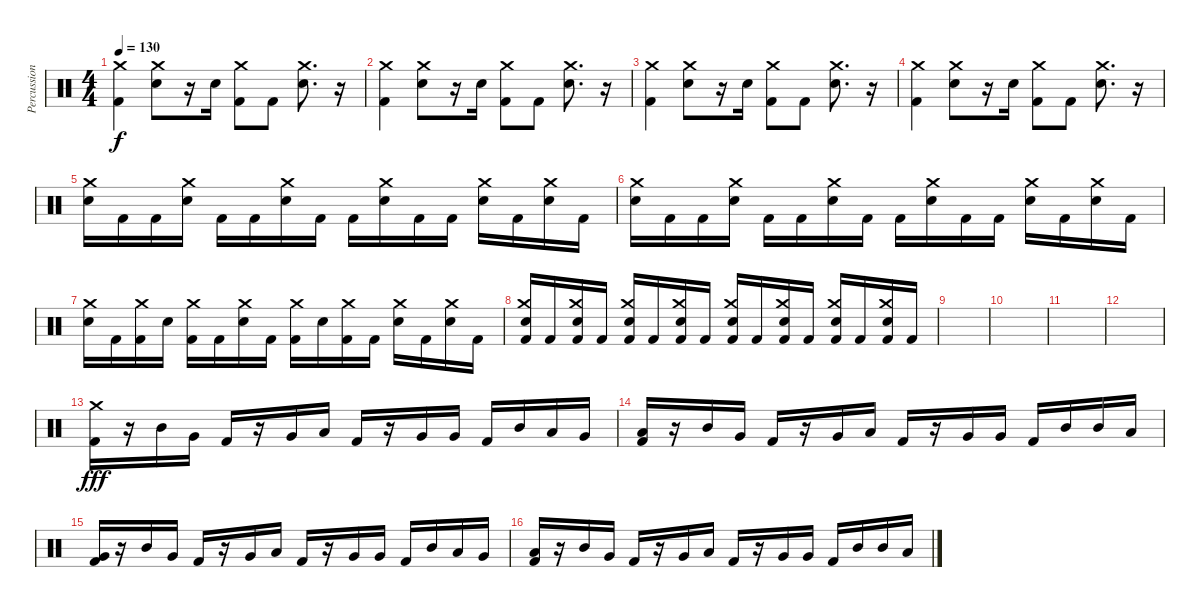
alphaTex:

\track ("Percussions" "Percussion") {instrument percussion}
\staff {score}
\articulation defaults
\ts (4 4)
\tempo 130
\clef neutral
\ks c
("Kick (hit) 2" "Crash medium (hit)").4{dy f} ("Electric Snare (hit)" "Crash medium (hit)").8 r.16 "Electric Snare (hit)".16 ("Kick (hit) 2" "Crash medium (hit)").8 "Kick (hit) 2".8 ("Electric Snare (hit)" "Crash medium (hit)").8{d} r.16 |
("Kick (hit) 2" "Crash medium (hit)").4 ("Electric Snare (hit)" "Crash medium (hit)").8 r.16 "Electric Snare (hit)".16 ("Kick (hit) 2" "Crash medium (hit)").8 "Kick (hit) 2".8 ("Electric Snare (hit)" "Crash medium (hit)").8{d} r.16 |
("Kick (hit) 2" "Crash medium (hit)").4 ("Electric Snare (hit)" "Crash medium (hit)").8 r.16 "Electric Snare (hit)".16 ("Kick (hit) 2" "Crash medium (hit)").8 "Kick (hit) 2".8 ("Electric Snare (hit)" "Crash medium (hit)").8{d} r.16 |
("Kick (hit) 2" "Crash medium (hit)").4 ("Electric Snare (hit)" "Crash medium (hit)").8 r.16 "Electric Snare (hit)".16 ("Kick (hit) 2" "Crash medium (hit)").8 "Kick (hit) 2".8 ("Electric Snare (hit)" "Crash medium (hit)").8{d} r.16 |
("Crash medium (hit)" "Electric Snare (hit)").16 "Kick (hit) 2".16 "Kick (hit) 2".16 ("Crash medium (hit)" "Electric Snare (hit)").16 "Kick (hit) 2".16 "Kick (hit) 2".16 ("Crash medium (hit)" "Electric Snare (hit)").16 "Kick (hit) 2".16 "Kick (hit) 2".16 ("Crash medium (hit)" "Electric Snare (hit)").16 "Kick (hit) 2".16 "Kick (hit) 2".16 ("Crash medium (hit)" "Electric Snare (hit)").16 "Kick (hit) 2".16 ("Crash medium (hit)" "Electric Snare (hit)").16 "Kick (hit) 2".16 |
("Crash medium (hit)" "Electric Snare (hit)").16 "Kick (hit) 2".16 "Kick (hit) 2".16 ("Crash medium (hit)" "Electric Snare (hit)").16 "Kick (hit) 2".16 "Kick (hit) 2".16 ("Crash medium (hit)" "Electric Snare (hit)").16 "Kick (hit) 2".16 "Kick (hit) 2".16 ("Crash medium (hit)" "Electric Snare (hit)").16 "Kick (hit) 2".16 "Kick (hit) 2".16 ("Crash medium (hit)" "Electric Snare (hit)").16 "Kick (hit) 2".16 ("Crash medium (hit)" "Electric Snare (hit)").16 "Kick (hit) 2".16 |
("Crash medium (hit)" "Electric Snare (hit)").16 "Kick (hit) 2".16 ("Crash medium (hit)" "Kick (hit) 2").16 "Electric Snare (hit)".16 ("Crash medium (hit)" "Kick (hit) 2").16 "Kick (hit) 2".16 ("Crash medium (hit)" "Electric Snare (hit)").16 "Kick (hit) 2".16 ("Crash medium (hit)" "Kick (hit) 2").16 "Electric Snare (hit)".16 ("Crash medium (hit)" "Kick (hit) 2").16 "Kick (hit) 2".16 ("Crash medium (hit)" "Electric Snare (hit)").16 "Kick (hit) 2".16 ("Crash medium (hit)" "Electric Snare (hit)").16 "Kick (hit) 2".16 |
("Crash medium (hit)" "Electric Snare (hit)" "Kick (hit) 2").16 "Kick (hit) 2".16 ("Crash medium (hit)" "Electric Snare (hit)" "Kick (hit) 2").16 "Kick (hit) 2".16 ("Crash medium (hit)" "Electric Snare (hit)" "Kick (hit) 2").16 "Kick (hit) 2".16 ("Crash medium (hit)" "Electric Snare (hit)" "Kick (hit) 2").16 "Kick (hit) 2".16 ("Crash medium (hit)" "Electric Snare (hit)" "Kick (hit) 2").16 "Kick (hit) 2".16 ("Crash medium (hit)" "Electric Snare (hit)" "Kick (hit) 2").16 "Kick (hit) 2".16 ("Crash medium (hit)" "Electric Snare (hit)" "Kick (hit) 2").16 "Kick (hit) 2".16 ("Crash medium (hit)" "Electric Snare (hit)" "Kick (hit) 2").16 "Kick (hit) 2".16 |
|
|
|
|
("Crash medium (hit)" "Kick (hit) 2").16{dy fff} r.16 "Mid Tom (hit)".16 "Very Low Tom (hit)".16 "Kick (hit) 2".16 r.16 "Very Low Tom (hit)".16 "Low Tom (hit)".16 "Kick (hit) 2".16 r.16 "Very Low Tom (hit)".16 "Very Low Tom (hit)".16 "Kick (hit) 2".16 "Mid Tom (hit)".16 "Low Tom (hit)".16 "Very Low Tom (hit)".16 |
("Low Tom (hit)" "Kick (hit) 2").16 r.16 "Mid Tom (hit)".16 "Very Low Tom (hit)".16 "Kick (hit) 2".16 r.16 "Very Low Tom (hit)".16 "Low Tom (hit)".16 "Kick (hit) 2".16 r.16 "Very Low Tom (hit)".16 "Very Low Tom (hit)".16 "Kick (hit) 2".16 "Mid Tom (hit)".16 "Mid Tom (hit)".16 "Low Tom (hit)".16 |
("Very Low Tom (hit)" "Kick (hit) 2").16 r.16 "Mid Tom (hit)".16 "Very Low Tom (hit)".16 "Kick (hit) 2".16 r.16 "Very Low Tom (hit)".16 "Low Tom (hit)".16 "Kick (hit) 2".16 r.16 "Very Low Tom (hit)".16 "Very Low Tom (hit)".16 "Kick (hit) 2".16 "Mid Tom (hit)".16 "Low Tom (hit)".16 "Very Low Tom (hit)".16 |
("Low Tom (hit)" "Kick (hit) 2").16 r.16 "Mid Tom (hit)".16 "Very Low Tom (hit)".16 "Kick (hit) 2".16 r.16 "Very Low Tom (hit)".16 "Low Tom (hit)".16 "Kick (hit) 2".16 r.16 "Very Low Tom (hit)".16 "Very Low Tom (hit)".16 "Kick (hit) 2".16 "Mid Tom (hit)".16 "Mid Tom (hit)".16 "Low Tom (hit)".16
